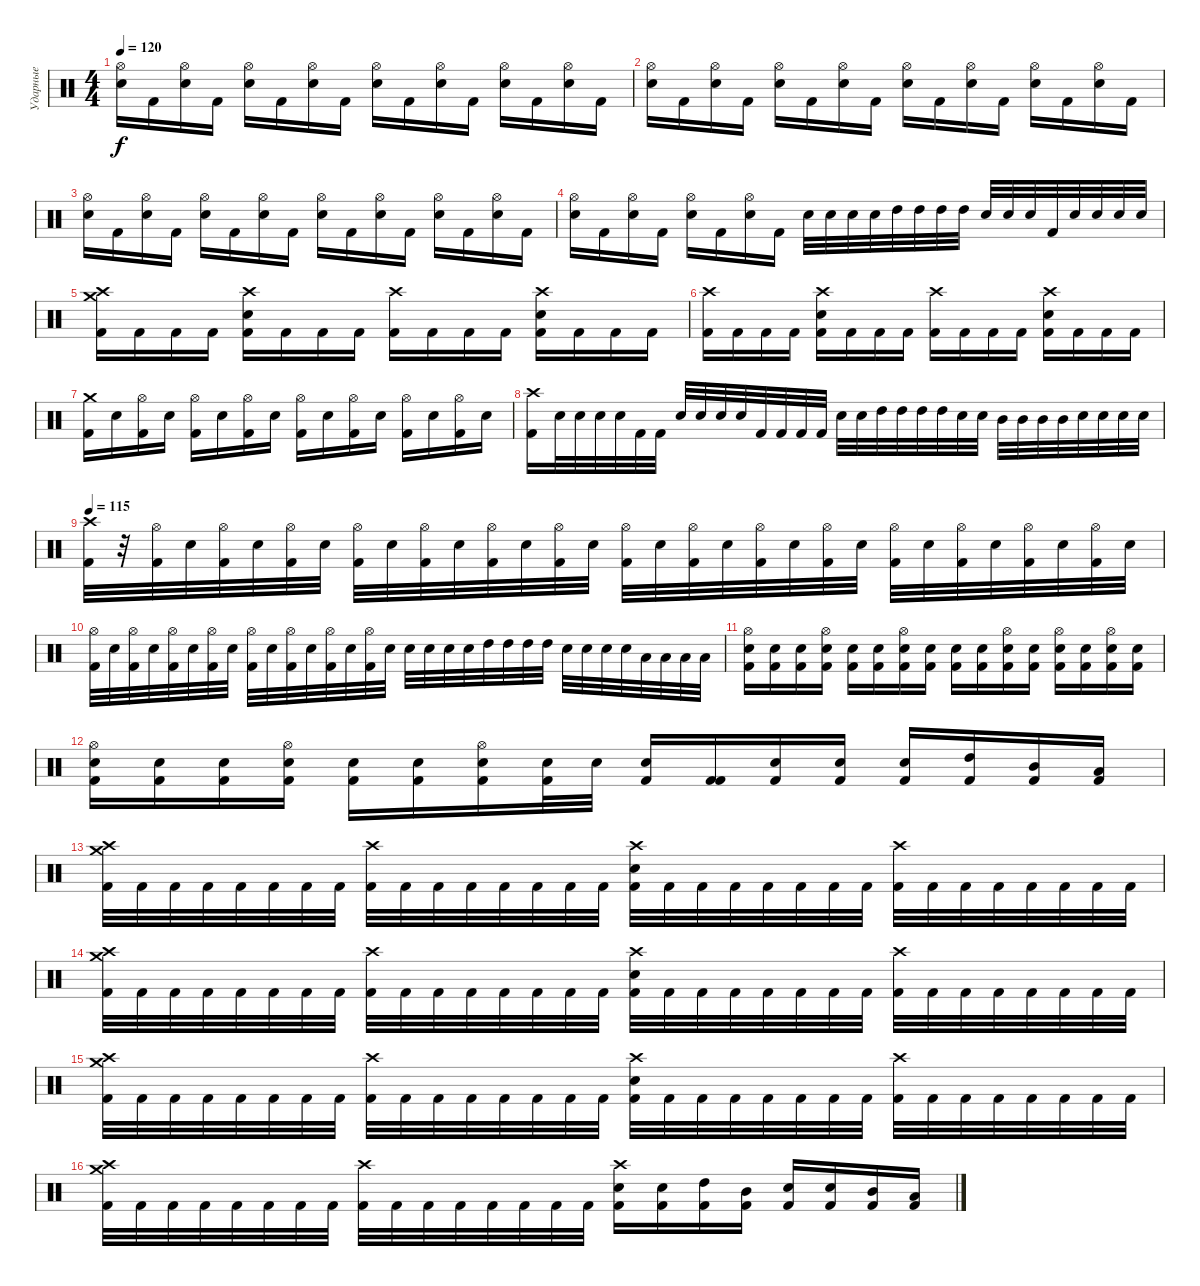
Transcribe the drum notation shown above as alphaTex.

\track ("Ударные" "Ударные") {instrument percussion}
\staff {score}
\articulation defaults
\ts (4 4)
\tempo 120
\clef neutral
\ks c
("Hi-Hat (open)" "Electric Snare (hit)").16{dy f} "Kick (hit) 2".16 ("Hi-Hat (open)" "Electric Snare (hit)").16 "Kick (hit) 2".16 ("Hi-Hat (open)" "Electric Snare (hit)").16 "Kick (hit) 2".16 ("Hi-Hat (open)" "Electric Snare (hit)").16 "Kick (hit) 2".16 ("Hi-Hat (open)" "Electric Snare (hit)").16 "Kick (hit) 2".16 ("Hi-Hat (open)" "Electric Snare (hit)").16 "Kick (hit) 2".16 ("Hi-Hat (open)" "Electric Snare (hit)").16 "Kick (hit) 2".16 ("Hi-Hat (open)" "Electric Snare (hit)").16 "Kick (hit) 2".16 |
("Hi-Hat (open)" "Electric Snare (hit)").16 "Kick (hit) 2".16 ("Hi-Hat (open)" "Electric Snare (hit)").16 "Kick (hit) 2".16 ("Hi-Hat (open)" "Electric Snare (hit)").16 "Kick (hit) 2".16 ("Hi-Hat (open)" "Electric Snare (hit)").16 "Kick (hit) 2".16 ("Hi-Hat (open)" "Electric Snare (hit)").16 "Kick (hit) 2".16 ("Hi-Hat (open)" "Electric Snare (hit)").16 "Kick (hit) 2".16 ("Hi-Hat (open)" "Electric Snare (hit)").16 "Kick (hit) 2".16 ("Hi-Hat (open)" "Electric Snare (hit)").16 "Kick (hit) 2".16 |
("Hi-Hat (open)" "Electric Snare (hit)").16 "Kick (hit) 2".16 ("Hi-Hat (open)" "Electric Snare (hit)").16 "Kick (hit) 2".16 ("Hi-Hat (open)" "Electric Snare (hit)").16 "Kick (hit) 2".16 ("Hi-Hat (open)" "Electric Snare (hit)").16 "Kick (hit) 2".16 ("Hi-Hat (open)" "Electric Snare (hit)").16 "Kick (hit) 2".16 ("Hi-Hat (open)" "Electric Snare (hit)").16 "Kick (hit) 2".16 ("Hi-Hat (open)" "Electric Snare (hit)").16 "Kick (hit) 2".16 ("Hi-Hat (open)" "Electric Snare (hit)").16 "Kick (hit) 2".16 |
("Hi-Hat (open)" "Electric Snare (hit)").16 "Kick (hit) 2".16 ("Hi-Hat (open)" "Electric Snare (hit)").16 "Kick (hit) 2".16 ("Hi-Hat (open)" "Electric Snare (hit)").16 "Kick (hit) 2".16 ("Hi-Hat (open)" "Electric Snare (hit)").16 "Kick (hit) 2".16 "Electric Snare (hit)".32 "Electric Snare (hit)".32 "Electric Snare (hit)".32 "Electric Snare (hit)".32 "High Tom (hit)".32 "High Tom (hit)".32 "High Tom (hit)".32 "High Tom (hit)".32 "Electric Snare (hit)".32 "Electric Snare (hit)".32 "Electric Snare (hit)".32 "Kick (hit) 2".32 "Electric Snare (hit)".32 "Electric Snare (hit)".32 "Electric Snare (hit)".32 "Electric Snare (hit)".32 |
("Crash high (hit)" "Crash medium (hit)" "Kick (hit) 2").16 "Kick (hit) 2".16 "Kick (hit) 2".16 "Kick (hit) 2".16 ("Crash high (hit)" "Electric Snare (hit)" "Kick (hit) 2").16 "Kick (hit) 2".16 "Kick (hit) 2".16 "Kick (hit) 2".16 ("Crash high (hit)" "Kick (hit) 2").16 "Kick (hit) 2".16 "Kick (hit) 2".16 "Kick (hit) 2".16 ("Crash high (hit)" "Electric Snare (hit)" "Kick (hit) 2").16 "Kick (hit) 2".16 "Kick (hit) 2".16 "Kick (hit) 2".16 |
("Crash high (hit)" "Kick (hit) 2").16 "Kick (hit) 2".16 "Kick (hit) 2".16 "Kick (hit) 2".16 ("Crash high (hit)" "Electric Snare (hit)" "Kick (hit) 2").16 "Kick (hit) 2".16 "Kick (hit) 2".16 "Kick (hit) 2".16 ("Crash high (hit)" "Kick (hit) 2").16 "Kick (hit) 2".16 "Kick (hit) 2".16 "Kick (hit) 2".16 ("Crash high (hit)" "Electric Snare (hit)" "Kick (hit) 2").16 "Kick (hit) 2".16 "Kick (hit) 2".16 "Kick (hit) 2".16 |
("Crash medium (hit)" "Kick (hit) 2").16 "Electric Snare (hit)".16 ("Hi-Hat (open)" "Kick (hit) 2").16 "Electric Snare (hit)".16 ("Hi-Hat (open)" "Kick (hit) 2").16 "Electric Snare (hit)".16 ("Hi-Hat (open)" "Kick (hit) 2").16 "Electric Snare (hit)".16 ("Hi-Hat (open)" "Kick (hit) 2").16 "Electric Snare (hit)".16 ("Hi-Hat (open)" "Kick (hit) 2").16 "Electric Snare (hit)".16 ("Hi-Hat (open)" "Kick (hit) 2").16 "Electric Snare (hit)".16 ("Hi-Hat (open)" "Kick (hit) 2").16 "Electric Snare (hit)".16 |
("Crash high (hit)" "Kick (hit) 2").16 "Electric Snare (hit)".32 "Electric Snare (hit)".32 "Electric Snare (hit)".32 "Electric Snare (hit)".32 "Kick (hit) 2".32 "Kick (hit) 2".32 "Electric Snare (hit)".32 "Electric Snare (hit)".32 "Electric Snare (hit)".32 "Electric Snare (hit)".32 "Kick (hit) 2".32 "Kick (hit) 2".32 "Kick (hit) 2".32 "Kick (hit) 2".32 "Electric Snare (hit)".32 "Electric Snare (hit)".32 "High Tom (hit)".32 "High Tom (hit)".32 "High Tom (hit)".32 "High Tom (hit)".32 "Electric Snare (hit)".32 "Electric Snare (hit)".32 "Mid Tom (hit)".32 "Mid Tom (hit)".32 "Mid Tom (hit)".32 "Mid Tom (hit)".32 "Electric Snare (hit)".32 "Electric Snare (hit)".32 "Electric Snare (hit)".32 "Electric Snare (hit)".32 |
\tempo 115
("Crash high (hit)" "Kick (hit) 2").32 r.32 ("Hi-Hat (open)" "Kick (hit) 2").32 "Electric Snare (hit)".32 ("Hi-Hat (open)" "Kick (hit) 2").32 "Electric Snare (hit)".32 ("Hi-Hat (open)" "Kick (hit) 2").32 "Electric Snare (hit)".32 ("Hi-Hat (open)" "Kick (hit) 2").32 "Electric Snare (hit)".32 ("Hi-Hat (open)" "Kick (hit) 2").32 "Electric Snare (hit)".32 ("Hi-Hat (open)" "Kick (hit) 2").32 "Electric Snare (hit)".32 ("Hi-Hat (open)" "Kick (hit) 2").32 "Electric Snare (hit)".32 ("Hi-Hat (open)" "Kick (hit) 2").32 "Electric Snare (hit)".32 ("Hi-Hat (open)" "Kick (hit) 2").32 "Electric Snare (hit)".32 ("Hi-Hat (open)" "Kick (hit) 2").32 "Electric Snare (hit)".32 ("Hi-Hat (open)" "Kick (hit) 2").32 "Electric Snare (hit)".32 ("Hi-Hat (open)" "Kick (hit) 2").32 "Electric Snare (hit)".32 ("Hi-Hat (open)" "Kick (hit) 2").32 "Electric Snare (hit)".32 ("Hi-Hat (open)" "Kick (hit) 2").32 "Electric Snare (hit)".32 ("Hi-Hat (open)" "Kick (hit) 2").32 "Electric Snare (hit)".32 |
("Hi-Hat (open)" "Kick (hit) 2").32 "Electric Snare (hit)".32 ("Hi-Hat (open)" "Kick (hit) 2").32 "Electric Snare (hit)".32 ("Hi-Hat (open)" "Kick (hit) 2").32 "Electric Snare (hit)".32 ("Hi-Hat (open)" "Kick (hit) 2").32 "Electric Snare (hit)".32 ("Hi-Hat (open)" "Kick (hit) 2").32 "Electric Snare (hit)".32 ("Hi-Hat (open)" "Kick (hit) 2").32 "Electric Snare (hit)".32 ("Hi-Hat (open)" "Kick (hit) 2").32 "Electric Snare (hit)".32 ("Hi-Hat (open)" "Kick (hit) 2").32 "Electric Snare (hit)".32 "Electric Snare (hit)".32 "Electric Snare (hit)".32 "Electric Snare (hit)".32 "Electric Snare (hit)".32 "High Tom (hit)".32 "High Tom (hit)".32 "High Tom (hit)".32 "High Tom (hit)".32 "Electric Snare (hit)".32 "Electric Snare (hit)".32 "Electric Snare (hit)".32 "Electric Snare (hit)".32 "Low Tom (hit)".32 "Low Tom (hit)".32 "Low Tom (hit)".32 "Low Tom (hit)".32 |
("Hi-Hat (open)" "Electric Snare (hit)" "Kick (hit) 2").16 ("Electric Snare (hit)" "Kick (hit) 2").16 ("Electric Snare (hit)" "Kick (hit) 2").16 ("Hi-Hat (open)" "Electric Snare (hit)" "Kick (hit) 2").16 ("Electric Snare (hit)" "Kick (hit) 2").16 ("Electric Snare (hit)" "Kick (hit) 2").16 ("Hi-Hat (open)" "Electric Snare (hit)" "Kick (hit) 2").16 ("Electric Snare (hit)" "Kick (hit) 2").16 ("Electric Snare (hit)" "Kick (hit) 2").16 ("Electric Snare (hit)" "Kick (hit) 2").16 ("Hi-Hat (open)" "Electric Snare (hit)" "Kick (hit) 2").16 ("Electric Snare (hit)" "Kick (hit) 2").16 ("Hi-Hat (open)" "Electric Snare (hit)" "Kick (hit) 2").16 ("Electric Snare (hit)" "Kick (hit) 2").16 ("Hi-Hat (open)" "Electric Snare (hit)" "Kick (hit) 2").16 ("Electric Snare (hit)" "Kick (hit) 2").16 |
("Hi-Hat (open)" "Electric Snare (hit)" "Kick (hit) 2").16 ("Electric Snare (hit)" "Kick (hit) 2").16 ("Electric Snare (hit)" "Kick (hit) 2").16 ("Hi-Hat (open)" "Electric Snare (hit)" "Kick (hit) 2").16 ("Electric Snare (hit)" "Kick (hit) 2").16 ("Electric Snare (hit)" "Kick (hit) 2").16 ("Hi-Hat (open)" "Electric Snare (hit)" "Kick (hit) 2").16 ("Electric Snare (hit)" "Kick (hit) 2").32 "Electric Snare (hit)".32 ("Electric Snare (hit)" "Kick (hit) 2").16 ("Kick (hit) 2" "Kick (hit) 2").16 ("Electric Snare (hit)" "Kick (hit) 2").16 ("Electric Snare (hit)" "Kick (hit) 2").16 ("Electric Snare (hit)" "Kick (hit) 2").16 ("High Tom (hit)" "Kick (hit) 2").16 ("Mid Tom (hit)" "Kick (hit) 2").16 ("Low Tom (hit)" "Kick (hit) 2").16 |
("Crash high (hit)" "Crash medium (hit)" "Kick (hit) 2").32 "Kick (hit) 2".32 "Kick (hit) 2".32 "Kick (hit) 2".32 "Kick (hit) 2".32 "Kick (hit) 2".32 "Kick (hit) 2".32 "Kick (hit) 2".32 ("Crash high (hit)" "Kick (hit) 2").32 "Kick (hit) 2".32 "Kick (hit) 2".32 "Kick (hit) 2".32 "Kick (hit) 2".32 "Kick (hit) 2".32 "Kick (hit) 2".32 "Kick (hit) 2".32 ("Crash high (hit)" "Electric Snare (hit)" "Kick (hit) 2").32 "Kick (hit) 2".32 "Kick (hit) 2".32 "Kick (hit) 2".32 "Kick (hit) 2".32 "Kick (hit) 2".32 "Kick (hit) 2".32 "Kick (hit) 2".32 ("Crash high (hit)" "Kick (hit) 2").32 "Kick (hit) 2".32 "Kick (hit) 2".32 "Kick (hit) 2".32 "Kick (hit) 2".32 "Kick (hit) 2".32 "Kick (hit) 2".32 "Kick (hit) 2".32 |
("Crash high (hit)" "Crash medium (hit)" "Kick (hit) 2").32 "Kick (hit) 2".32 "Kick (hit) 2".32 "Kick (hit) 2".32 "Kick (hit) 2".32 "Kick (hit) 2".32 "Kick (hit) 2".32 "Kick (hit) 2".32 ("Crash high (hit)" "Kick (hit) 2").32 "Kick (hit) 2".32 "Kick (hit) 2".32 "Kick (hit) 2".32 "Kick (hit) 2".32 "Kick (hit) 2".32 "Kick (hit) 2".32 "Kick (hit) 2".32 ("Crash high (hit)" "Electric Snare (hit)" "Kick (hit) 2").32 "Kick (hit) 2".32 "Kick (hit) 2".32 "Kick (hit) 2".32 "Kick (hit) 2".32 "Kick (hit) 2".32 "Kick (hit) 2".32 "Kick (hit) 2".32 ("Crash high (hit)" "Kick (hit) 2").32 "Kick (hit) 2".32 "Kick (hit) 2".32 "Kick (hit) 2".32 "Kick (hit) 2".32 "Kick (hit) 2".32 "Kick (hit) 2".32 "Kick (hit) 2".32 |
("Crash high (hit)" "Crash medium (hit)" "Kick (hit) 2").32 "Kick (hit) 2".32 "Kick (hit) 2".32 "Kick (hit) 2".32 "Kick (hit) 2".32 "Kick (hit) 2".32 "Kick (hit) 2".32 "Kick (hit) 2".32 ("Crash high (hit)" "Kick (hit) 2").32 "Kick (hit) 2".32 "Kick (hit) 2".32 "Kick (hit) 2".32 "Kick (hit) 2".32 "Kick (hit) 2".32 "Kick (hit) 2".32 "Kick (hit) 2".32 ("Crash high (hit)" "Electric Snare (hit)" "Kick (hit) 2").32 "Kick (hit) 2".32 "Kick (hit) 2".32 "Kick (hit) 2".32 "Kick (hit) 2".32 "Kick (hit) 2".32 "Kick (hit) 2".32 "Kick (hit) 2".32 ("Crash high (hit)" "Kick (hit) 2").32 "Kick (hit) 2".32 "Kick (hit) 2".32 "Kick (hit) 2".32 "Kick (hit) 2".32 "Kick (hit) 2".32 "Kick (hit) 2".32 "Kick (hit) 2".32 |
("Crash high (hit)" "Crash medium (hit)" "Kick (hit) 2").32 "Kick (hit) 2".32 "Kick (hit) 2".32 "Kick (hit) 2".32 "Kick (hit) 2".32 "Kick (hit) 2".32 "Kick (hit) 2".32 "Kick (hit) 2".32 ("Crash high (hit)" "Kick (hit) 2").32 "Kick (hit) 2".32 "Kick (hit) 2".32 "Kick (hit) 2".32 "Kick (hit) 2".32 "Kick (hit) 2".32 "Kick (hit) 2".32 "Kick (hit) 2".32 ("Crash high (hit)" "Electric Snare (hit)" "Kick (hit) 2").16 ("Electric Snare (hit)" "Kick (hit) 2").16 ("High Tom (hit)" "Kick (hit) 2").16 ("Mid Tom (hit)" "Kick (hit) 2").16 ("Electric Snare (hit)" "Kick (hit) 2").16 ("Electric Snare (hit)" "Kick (hit) 2").16 ("Mid Tom (hit)" "Kick (hit) 2").16 ("Low Tom (hit)" "Kick (hit) 2").16
